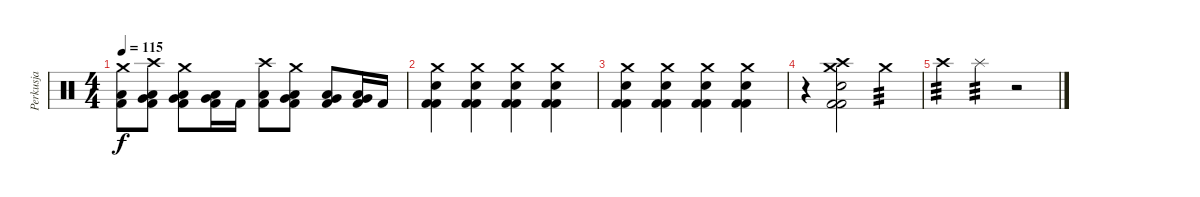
\track ("Perkusja" "Perkusja") {instrument percussion}
\staff {score}
\articulation defaults
\ts (4 4)
\tempo 115
\clef neutral
\ks c
("Crash medium (hit)" "Low Tom (hit)" "Kick (hit) 2").8{dy f} ("Crash high (hit)" "Very Low Tom (hit)" "Low Tom (hit)" "Kick (hit) 2").8 ("Crash medium (hit)" "Very Low Tom (hit)" "Low Tom (hit)" "Kick (hit) 2").8 ("Very Low Tom (hit)" "Low Tom (hit)" "Kick (hit) 2").16 "Kick (hit) 2".16 ("Crash high (hit)" "Low Tom (hit)" "Kick (hit) 2").8 ("Crash medium (hit)" "Very Low Tom (hit)" "Low Tom (hit)" "Kick (hit) 2").8 ("Very Low Tom (hit)" "Low Tom (hit)" "Kick (hit) 2").8 ("Very Low Tom (hit)" "Low Tom (hit)" "Kick (hit) 2").16 "Kick (hit) 2".16 |
("Crash medium (hit)" "Snare (hit) 2" "Kick (hit) 2" "Kick (hit) 2").4 ("Crash medium (hit)" "Kick (hit) 2" "Snare (hit) 2" "Kick (hit) 2").4 ("Crash medium (hit)" "Kick (hit) 2" "Snare (hit) 2" "Kick (hit) 2").4 ("Crash medium (hit)" "Kick (hit) 2" "Snare (hit) 2" "Kick (hit) 2").4 |
("Crash medium (hit)" "Snare (hit) 2" "Kick (hit) 2" "Kick (hit) 2").4 ("Crash medium (hit)" "Kick (hit) 2" "Snare (hit) 2" "Kick (hit) 2").4 ("Crash medium (hit)" "Kick (hit) 2" "Snare (hit) 2" "Kick (hit) 2").4 ("Crash medium (hit)" "Kick (hit) 2" "Snare (hit) 2" "Kick (hit) 2").4 |
r.4 ("Crash medium (hit)" "Crash high (hit)" "Snare (hit) 2" "Kick (hit) 2" "Kick (hit) 2").2 "Crash medium (hit)".4{tp 3} |
"Crash high (hit)".4{tp 3} "Splash (hit)".4{tp 3} r.2
